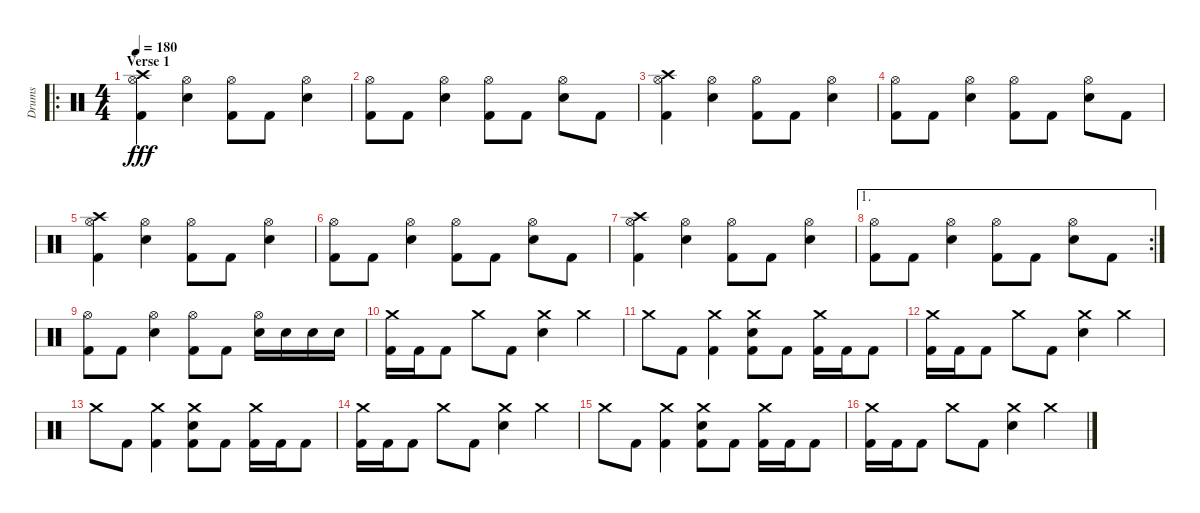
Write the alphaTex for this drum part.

\track ("Drums" "Drums") {instrument percussion}
\staff {score}
\articulation defaults
\ro
\ts (4 4)
\section ("" "Verse 1")
\tempo 180
\clef neutral
\ks c
("Crash high (hit)" "Hi-Hat (open)" "Kick (hit) 2").4{dy fff} ("Hi-Hat (open)" "Snare (hit) 2").4 ("Hi-Hat (open)" "Kick (hit) 2").8 "Kick (hit) 2".8 ("Hi-Hat (open)" "Snare (hit) 2").4 |
("Hi-Hat (open)" "Kick (hit) 2").8 "Kick (hit) 2".8 ("Hi-Hat (open)" "Snare (hit) 2").4 ("Hi-Hat (open)" "Kick (hit) 2").8 "Kick (hit) 2".8 ("Hi-Hat (open)" "Snare (hit) 2").8 "Kick (hit) 2".8 |
("Crash high (hit)" "Hi-Hat (open)" "Kick (hit) 2").4 ("Hi-Hat (open)" "Snare (hit) 2").4 ("Hi-Hat (open)" "Kick (hit) 2").8 "Kick (hit) 2".8 ("Hi-Hat (open)" "Snare (hit) 2").4 |
("Hi-Hat (open)" "Kick (hit) 2").8 "Kick (hit) 2".8 ("Hi-Hat (open)" "Snare (hit) 2").4 ("Hi-Hat (open)" "Kick (hit) 2").8 "Kick (hit) 2".8 ("Hi-Hat (open)" "Snare (hit) 2").8 "Kick (hit) 2".8 |
("Crash high (hit)" "Hi-Hat (open)" "Kick (hit) 2").4 ("Hi-Hat (open)" "Snare (hit) 2").4 ("Hi-Hat (open)" "Kick (hit) 2").8 "Kick (hit) 2".8 ("Hi-Hat (open)" "Snare (hit) 2").4 |
("Hi-Hat (open)" "Kick (hit) 2").8 "Kick (hit) 2".8 ("Hi-Hat (open)" "Snare (hit) 2").4 ("Hi-Hat (open)" "Kick (hit) 2").8 "Kick (hit) 2".8 ("Hi-Hat (open)" "Snare (hit) 2").8 "Kick (hit) 2".8 |
("Crash high (hit)" "Hi-Hat (open)" "Kick (hit) 2").4 ("Hi-Hat (open)" "Snare (hit) 2").4 ("Hi-Hat (open)" "Kick (hit) 2").8 "Kick (hit) 2".8 ("Hi-Hat (open)" "Snare (hit) 2").4 |
\ae 1
\rc 2
("Hi-Hat (open)" "Kick (hit) 2").8 "Kick (hit) 2".8 ("Hi-Hat (open)" "Snare (hit) 2").4 ("Hi-Hat (open)" "Kick (hit) 2").8 "Kick (hit) 2".8 ("Hi-Hat (open)" "Snare (hit) 2").8 "Kick (hit) 2".8 |
("Hi-Hat (open)" "Kick (hit) 2").8 "Kick (hit) 2".8 ("Hi-Hat (open)" "Snare (hit) 2").4 ("Hi-Hat (open)" "Kick (hit) 2").8 "Kick (hit) 2".8 ("Hi-Hat (open)" "Snare (hit) 2").16 "Snare (hit) 2".16 "Snare (hit) 2".16 "Snare (hit) 2".16 |
("Crash medium (hit)" "Kick (hit) 2").16 "Kick (hit) 2".16 "Kick (hit) 2".8 "Crash medium (hit)".8 "Kick (hit) 2".8 ("Crash medium (hit)" "Snare (hit) 2").4 "Crash medium (hit)".4 |
"Crash medium (hit)".8 "Kick (hit) 2".8 ("Crash medium (hit)" "Kick (hit) 2").4 ("Crash medium (hit)" "Snare (hit) 2" "Kick (hit) 2").8 "Kick (hit) 2".8 ("Crash medium (hit)" "Kick (hit) 2").16 "Kick (hit) 2".16 "Kick (hit) 2".8 |
("Crash medium (hit)" "Kick (hit) 2").16 "Kick (hit) 2".16 "Kick (hit) 2".8 "Crash medium (hit)".8 "Kick (hit) 2".8 ("Crash medium (hit)" "Snare (hit) 2").4 "Crash medium (hit)".4 |
"Crash medium (hit)".8 "Kick (hit) 2".8 ("Crash medium (hit)" "Kick (hit) 2").4 ("Crash medium (hit)" "Snare (hit) 2" "Kick (hit) 2").8 "Kick (hit) 2".8 ("Crash medium (hit)" "Kick (hit) 2").16 "Kick (hit) 2".16 "Kick (hit) 2".8 |
("Crash medium (hit)" "Kick (hit) 2").16 "Kick (hit) 2".16 "Kick (hit) 2".8 "Crash medium (hit)".8 "Kick (hit) 2".8 ("Crash medium (hit)" "Snare (hit) 2").4 "Crash medium (hit)".4 |
"Crash medium (hit)".8 "Kick (hit) 2".8 ("Crash medium (hit)" "Kick (hit) 2").4 ("Crash medium (hit)" "Snare (hit) 2" "Kick (hit) 2").8 "Kick (hit) 2".8 ("Crash medium (hit)" "Kick (hit) 2").16 "Kick (hit) 2".16 "Kick (hit) 2".8 |
("Crash medium (hit)" "Kick (hit) 2").16 "Kick (hit) 2".16 "Kick (hit) 2".8 "Crash medium (hit)".8 "Kick (hit) 2".8 ("Crash medium (hit)" "Snare (hit) 2").4 "Crash medium (hit)".4
